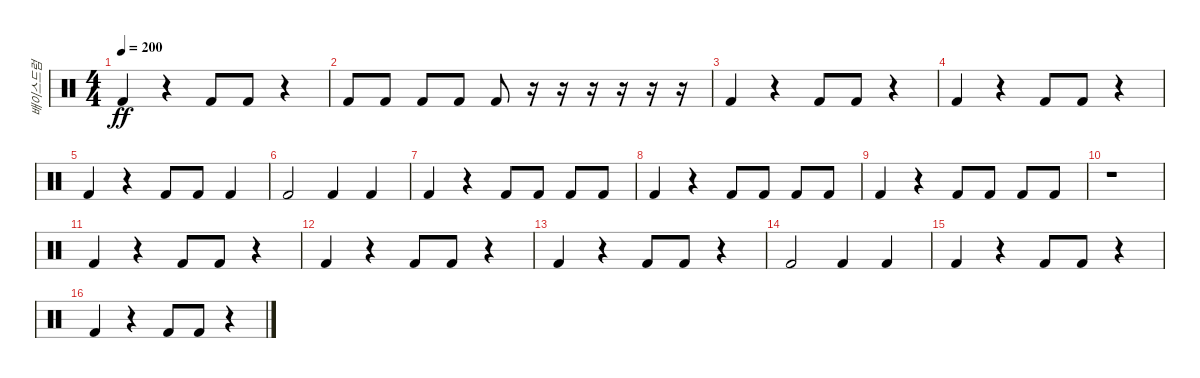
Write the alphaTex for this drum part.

\track ("배이스드럼" "배이스드럼") {instrument percussion}
\staff {score}
\articulation defaults
\ts (4 4)
\tempo 200
\clef neutral
\ks c "Kick (hit) 2".4{dy ff}
r.4 "Kick (hit) 2".8 "Kick (hit) 2".8 r.4 |
"Kick (hit) 2".8 "Kick (hit) 2".8 "Kick (hit) 2".8 "Kick (hit) 2".8 "Kick (hit) 2".8 r.16 r.16 r.16 r.16 r.16 r.16 |
"Kick (hit) 2".4 r.4 "Kick (hit) 2".8 "Kick (hit) 2".8 r.4 |
"Kick (hit) 2".4 r.4 "Kick (hit) 2".8 "Kick (hit) 2".8 r.4 |
"Kick (hit) 2".4 r.4 "Kick (hit) 2".8 "Kick (hit) 2".8 "Kick (hit) 2".4 |
"Kick (hit) 2".2 "Kick (hit) 2".4 "Kick (hit) 2".4 |
"Kick (hit) 2".4 r.4 "Kick (hit) 2".8 "Kick (hit) 2".8 "Kick (hit) 2".8 "Kick (hit) 2".8 |
"Kick (hit) 2".4 r.4 "Kick (hit) 2".8 "Kick (hit) 2".8 "Kick (hit) 2".8 "Kick (hit) 2".8 |
"Kick (hit) 2".4 r.4 "Kick (hit) 2".8 "Kick (hit) 2".8 "Kick (hit) 2".8 "Kick (hit) 2".8 |
r.1 |
"Kick (hit) 2".4 r.4 "Kick (hit) 2".8 "Kick (hit) 2".8 r.4 |
"Kick (hit) 2".4 r.4 "Kick (hit) 2".8 "Kick (hit) 2".8 r.4 |
"Kick (hit) 2".4 r.4 "Kick (hit) 2".8 "Kick (hit) 2".8 r.4 |
"Kick (hit) 2".2 "Kick (hit) 2".4 "Kick (hit) 2".4 |
"Kick (hit) 2".4 r.4 "Kick (hit) 2".8 "Kick (hit) 2".8 r.4 |
"Kick (hit) 2".4 r.4 "Kick (hit) 2".8 "Kick (hit) 2".8 r.4
